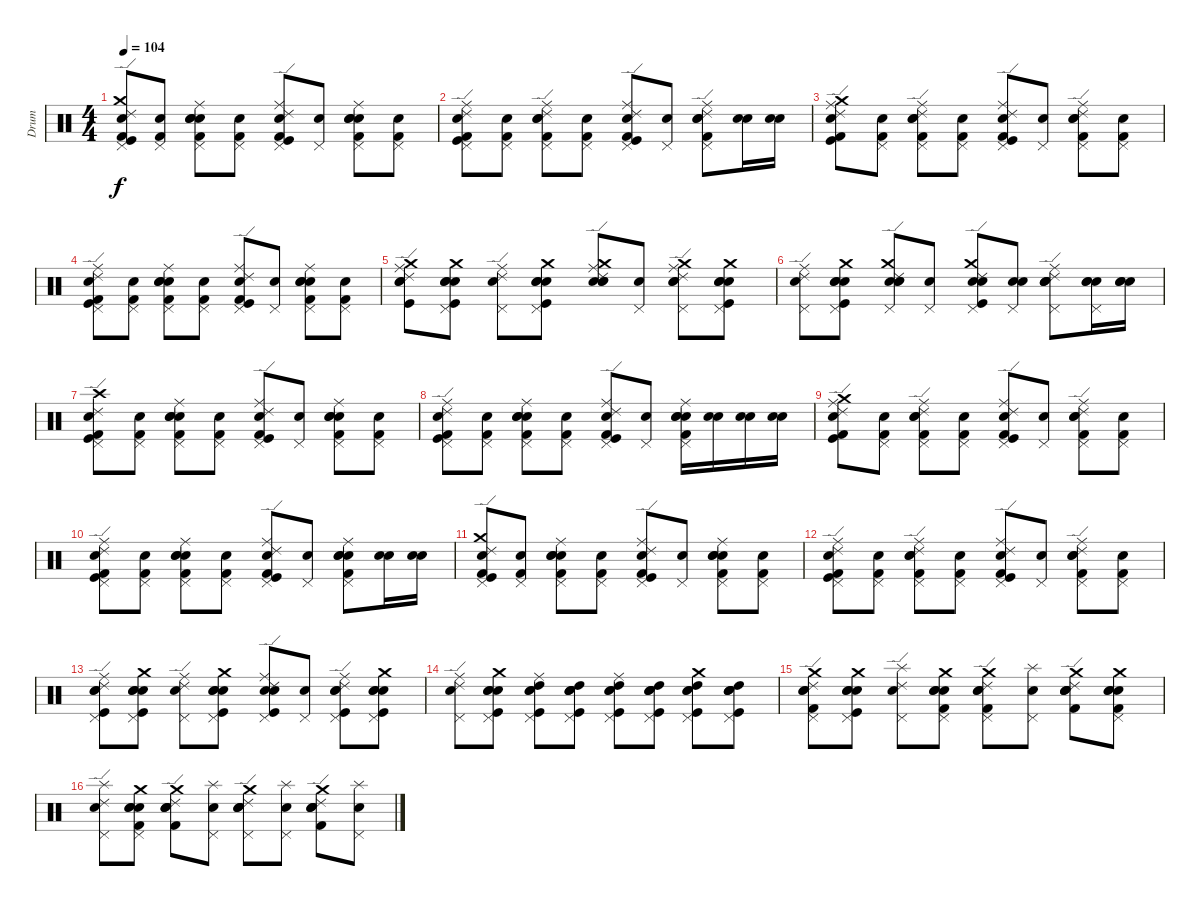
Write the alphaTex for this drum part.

\track ("Drum" "Drum") {instrument percussion}
\staff {score}
\articulation defaults
\ts (4 4)
\tempo 104
\clef neutral
\ks c
("Snare (hit)" "Kick (hit)" "Pedal Hi-Hat (hit)" "Crash medium (hit)" "Ride (edge) 2" "Kick (hit) 2").8{dy f} ("Snare (hit)" "Pedal Hi-Hat (hit)" "Kick (hit) 2").8 ("Snare (hit)" "Kick (hit) 2" "Electric Snare (hit)" "Snare (hit) 2" "Pedal Hi-Hat (hit)" "Ride (middle)").8 ("Snare (hit)" "Pedal Hi-Hat (hit)" "Kick (hit) 2").8 ("Snare (hit)" "Kick (hit)" "Pedal Hi-Hat (hit)" "Ride (edge) 2" "Ride (middle)" "Kick (hit) 2").8 ("Snare (hit)" "Pedal Hi-Hat (hit)").8 ("Snare (hit)" "Kick (hit) 2" "Snare (hit) 2" "Electric Snare (hit)" "Pedal Hi-Hat (hit)" "Ride (middle)").8 ("Snare (hit)" "Pedal Hi-Hat (hit)" "Kick (hit) 2").8 |
("Snare (hit)" "Kick (hit) 2" "Ride (middle)" "Ride (edge) 2" "Pedal Hi-Hat (hit)" "Kick (hit)").8 ("Snare (hit)" "Kick (hit) 2" "Pedal Hi-Hat (hit)").8 ("Snare (hit)" "Ride (middle)" "Ride (edge) 2" "Pedal Hi-Hat (hit)" "Snare (hit) 2" "Kick (hit) 2").8 ("Snare (hit)" "Kick (hit) 2" "Pedal Hi-Hat (hit)").8 ("Snare (hit)" "Kick (hit) 2" "Ride (middle)" "Ride (edge) 2" "Pedal Hi-Hat (hit)" "Kick (hit)").8 ("Snare (hit)" "Pedal Hi-Hat (hit)").8 ("Snare (hit)" "Ride (middle)" "Ride (edge) 2" "Pedal Hi-Hat (hit)" "Electric Snare (hit)" "Kick (hit) 2").8 ("Snare (hit)" "Snare (hit) 2").16 ("Snare (hit)" "Snare (hit) 2").16 |
("Snare (hit)" "Kick (hit) 2" "Ride (middle)" "Ride (edge) 2" "Crash medium (hit)" "Kick (hit)").8 ("Snare (hit)" "Kick (hit) 2" "Pedal Hi-Hat (hit)").8 ("Snare (hit)" "Ride (middle)" "Ride (edge) 2" "Pedal Hi-Hat (hit)" "Snare (hit) 2" "Kick (hit) 2").8 ("Snare (hit)" "Kick (hit) 2" "Pedal Hi-Hat (hit)").8 ("Snare (hit)" "Kick (hit) 2" "Ride (middle)" "Ride (edge) 2" "Pedal Hi-Hat (hit)" "Kick (hit)").8 ("Snare (hit)" "Pedal Hi-Hat (hit)").8 ("Snare (hit)" "Ride (middle)" "Ride (edge) 2" "Pedal Hi-Hat (hit)" "Electric Snare (hit)" "Kick (hit) 2").8 ("Snare (hit)" "Kick (hit) 2" "Pedal Hi-Hat (hit)").8 |
("Snare (hit)" "Kick (hit)" "Pedal Hi-Hat (hit)" "Ride (edge) 2" "Ride (middle)" "Kick (hit) 2").8 ("Snare (hit)" "Pedal Hi-Hat (hit)" "Kick (hit) 2").8 ("Snare (hit)" "Kick (hit) 2" "Electric Snare (hit)" "Snare (hit) 2" "Pedal Hi-Hat (hit)" "Ride (middle)").8 ("Snare (hit)" "Pedal Hi-Hat (hit)" "Kick (hit) 2").8 ("Snare (hit)" "Kick (hit)" "Pedal Hi-Hat (hit)" "Ride (edge) 2" "Ride (middle)" "Kick (hit) 2").8 ("Snare (hit)" "Pedal Hi-Hat (hit)").8 ("Snare (hit)" "Kick (hit) 2" "Snare (hit) 2" "Electric Snare (hit)" "Pedal Hi-Hat (hit)" "Ride (middle)").8 ("Snare (hit)" "Pedal Hi-Hat (hit)" "Kick (hit) 2").8 |
("Snare (hit)" "Ride (middle)" "Electric Snare (hit)" "Crash medium (hit)" "Ride (edge) 2" "Kick (hit)").8 ("Snare (hit)" "Electric Snare (hit)" "Crash medium (hit)" "Kick (hit)" "Pedal Hi-Hat (hit)" "Snare (hit) 2").8 ("Snare (hit)" "Ride (middle)" "Ride (edge) 2" "Pedal Hi-Hat (hit)").8 ("Snare (hit)" "Electric Snare (hit)" "Crash medium (hit)" "Snare (hit) 2" "Pedal Hi-Hat (hit)" "Kick (hit)").8 ("Snare (hit)" "Ride (middle)" "Electric Snare (hit)" "Crash medium (hit)" "Ride (edge) 2" "Snare (hit) 2").8 ("Snare (hit)" "Pedal Hi-Hat (hit)").8 ("Snare (hit)" "Ride (middle)" "Electric Snare (hit)" "Crash medium (hit)" "Ride (edge) 2" "Pedal Hi-Hat (hit)").8 ("Snare (hit)" "Electric Snare (hit)" "Crash medium (hit)" "Pedal Hi-Hat (hit)" "Snare (hit) 2" "Kick (hit)").8 |
("Snare (hit)" "Pedal Hi-Hat (hit)" "Ride (middle)" "Ride (edge) 2").8 ("Snare (hit)" "Crash medium (hit)" "Pedal Hi-Hat (hit)" "Electric Snare (hit)" "Kick (hit)" "Snare (hit) 2").8 ("Snare (hit)" "Ride (edge) 2" "Snare (hit) 2" "Pedal Hi-Hat (hit)" "Electric Snare (hit)" "Crash medium (hit)").8 ("Snare (hit)" "Pedal Hi-Hat (hit)").8 ("Snare (hit)" "Kick (hit)" "Pedal Hi-Hat (hit)" "Snare (hit) 2" "Crash medium (hit)" "Ride (edge) 2").8 ("Snare (hit)" "Snare (hit) 2" "Pedal Hi-Hat (hit)").8 ("Snare (hit)" "Ride (middle)" "Ride (edge) 2" "Electric Snare (hit)" "Pedal Hi-Hat (hit)" "Snare (hit) 2").8 ("Snare (hit)" "Pedal Hi-Hat (hit)" "Electric Snare (hit)" "Snare (hit) 2").16 ("Snare (hit)" "Snare (hit) 2" "Electric Snare (hit)").16 |
("Snare (hit)" "Kick (hit)" "Pedal Hi-Hat (hit)" "Crash high (hit)" "Ride (edge) 2" "Kick (hit) 2").8 ("Snare (hit)" "Pedal Hi-Hat (hit)" "Kick (hit) 2").8 ("Snare (hit)" "Kick (hit) 2" "Electric Snare (hit)" "Snare (hit) 2" "Pedal Hi-Hat (hit)" "Ride (middle)").8 ("Snare (hit)" "Pedal Hi-Hat (hit)" "Kick (hit) 2").8 ("Snare (hit)" "Kick (hit)" "Pedal Hi-Hat (hit)" "Ride (edge) 2" "Ride (middle)" "Kick (hit) 2").8 ("Snare (hit)" "Pedal Hi-Hat (hit)").8 ("Snare (hit)" "Kick (hit) 2" "Snare (hit) 2" "Electric Snare (hit)" "Pedal Hi-Hat (hit)" "Ride (middle)").8 ("Snare (hit)" "Pedal Hi-Hat (hit)" "Kick (hit) 2").8 |
("Snare (hit)" "Pedal Hi-Hat (hit)" "Kick (hit)" "Ride (edge) 2" "Ride (middle)" "Kick (hit) 2").8 ("Snare (hit)" "Pedal Hi-Hat (hit)" "Kick (hit) 2").8 ("Snare (hit)" "Pedal Hi-Hat (hit)" "Snare (hit) 2" "Electric Snare (hit)" "Kick (hit) 2" "Ride (middle)").8 ("Snare (hit)" "Pedal Hi-Hat (hit)" "Kick (hit) 2").8 ("Snare (hit)" "Pedal Hi-Hat (hit)" "Kick (hit)" "Ride (edge) 2" "Ride (middle)" "Kick (hit) 2").8 ("Snare (hit)" "Pedal Hi-Hat (hit)").8 ("Snare (hit)" "Pedal Hi-Hat (hit)" "Electric Snare (hit)" "Snare (hit) 2" "Kick (hit) 2" "Ride (middle)").16 ("Snare (hit)" "Snare (hit) 2").16 ("Snare (hit)" "Snare (hit) 2").16 ("Snare (hit)" "Snare (hit) 2").16 |
("Snare (hit)" "Kick (hit) 2" "Ride (middle)" "Ride (edge) 2" "Crash medium (hit)" "Kick (hit)").8 ("Snare (hit)" "Kick (hit) 2" "Pedal Hi-Hat (hit)").8 ("Snare (hit)" "Ride (middle)" "Ride (edge) 2" "Pedal Hi-Hat (hit)" "Snare (hit) 2" "Kick (hit) 2").8 ("Snare (hit)" "Kick (hit) 2" "Pedal Hi-Hat (hit)").8 ("Snare (hit)" "Kick (hit) 2" "Ride (middle)" "Ride (edge) 2" "Pedal Hi-Hat (hit)" "Kick (hit)").8 ("Snare (hit)" "Pedal Hi-Hat (hit)").8 ("Snare (hit)" "Ride (middle)" "Ride (edge) 2" "Pedal Hi-Hat (hit)" "Electric Snare (hit)" "Kick (hit) 2").8 ("Snare (hit)" "Kick (hit) 2" "Pedal Hi-Hat (hit)").8 |
("Snare (hit)" "Kick (hit)" "Pedal Hi-Hat (hit)" "Ride (edge) 2" "Ride (middle)" "Kick (hit) 2").8 ("Snare (hit)" "Pedal Hi-Hat (hit)" "Kick (hit) 2").8 ("Snare (hit)" "Kick (hit) 2" "Electric Snare (hit)" "Snare (hit) 2" "Pedal Hi-Hat (hit)" "Ride (middle)").8 ("Snare (hit)" "Pedal Hi-Hat (hit)" "Kick (hit) 2").8 ("Snare (hit)" "Kick (hit)" "Pedal Hi-Hat (hit)" "Ride (edge) 2" "Ride (middle)" "Kick (hit) 2").8 ("Snare (hit)" "Pedal Hi-Hat (hit)").8 ("Snare (hit)" "Kick (hit) 2" "Snare (hit) 2" "Electric Snare (hit)" "Pedal Hi-Hat (hit)" "Ride (middle)").8 ("Snare (hit)" "Snare (hit) 2").16 ("Snare (hit)" "Snare (hit) 2").16 |
("Snare (hit)" "Kick (hit)" "Pedal Hi-Hat (hit)" "Crash medium (hit)" "Ride (edge) 2" "Kick (hit) 2").8 ("Snare (hit)" "Pedal Hi-Hat (hit)" "Kick (hit) 2").8 ("Snare (hit)" "Kick (hit) 2" "Electric Snare (hit)" "Snare (hit) 2" "Pedal Hi-Hat (hit)" "Ride (middle)").8 ("Snare (hit)" "Pedal Hi-Hat (hit)" "Kick (hit) 2").8 ("Snare (hit)" "Kick (hit)" "Pedal Hi-Hat (hit)" "Ride (edge) 2" "Ride (middle)" "Kick (hit) 2").8 ("Snare (hit)" "Pedal Hi-Hat (hit)").8 ("Snare (hit)" "Kick (hit) 2" "Snare (hit) 2" "Electric Snare (hit)" "Pedal Hi-Hat (hit)" "Ride (middle)").8 ("Snare (hit)" "Pedal Hi-Hat (hit)" "Kick (hit) 2").8 |
("Snare (hit)" "Kick (hit) 2" "Ride (middle)" "Ride (edge) 2" "Pedal Hi-Hat (hit)" "Kick (hit)").8 ("Snare (hit)" "Kick (hit) 2" "Pedal Hi-Hat (hit)").8 ("Snare (hit)" "Ride (middle)" "Ride (edge) 2" "Pedal Hi-Hat (hit)" "Snare (hit) 2" "Kick (hit) 2").8 ("Snare (hit)" "Kick (hit) 2" "Pedal Hi-Hat (hit)").8 ("Snare (hit)" "Kick (hit) 2" "Ride (middle)" "Ride (edge) 2" "Pedal Hi-Hat (hit)" "Kick (hit)").8 ("Snare (hit)" "Pedal Hi-Hat (hit)").8 ("Snare (hit)" "Ride (middle)" "Ride (edge) 2" "Pedal Hi-Hat (hit)" "Electric Snare (hit)" "Kick (hit) 2").8 ("Snare (hit)" "Kick (hit) 2" "Pedal Hi-Hat (hit)").8 |
("Snare (hit)" "Kick (hit)" "Snare (hit) 2" "Pedal Hi-Hat (hit)" "Ride (edge) 2" "Ride (middle)").8 ("Snare (hit)" "Snare (hit) 2" "Pedal Hi-Hat (hit)" "Kick (hit)" "Crash medium (hit)" "Electric Snare (hit)").8 ("Snare (hit)" "Pedal Hi-Hat (hit)" "Ride (edge) 2" "Ride (middle)").8 ("Snare (hit)" "Kick (hit)" "Pedal Hi-Hat (hit)" "Snare (hit) 2" "Crash medium (hit)" "Electric Snare (hit)").8 ("Snare (hit)" "Snare (hit) 2" "Pedal Hi-Hat (hit)" "Kick (hit)" "Ride (edge) 2" "Ride (middle)").8 ("Snare (hit)" "Pedal Hi-Hat (hit)").8 ("Snare (hit)" "Pedal Hi-Hat (hit)" "Kick (hit)" "Snare (hit) 2" "Ride (edge) 2" "Ride (middle)").8 ("Snare (hit)" "Kick (hit)" "Snare (hit) 2" "Pedal Hi-Hat (hit)" "Crash medium (hit)" "Electric Snare (hit)").8 |
("Snare (hit)" "Pedal Hi-Hat (hit)" "Ride (edge) 2" "Ride (middle)").8 ("Snare (hit)" "Snare (hit) 2" "Kick (hit)" "Pedal Hi-Hat (hit)" "Electric Snare (hit)" "Crash medium (hit)").8 ("Snare (hit)" "Pedal Hi-Hat (hit)" "Kick (hit)" "Snare (hit) 2" "High Tom (hit)" "Ride (middle)").8 ("Snare (hit)" "Pedal Hi-Hat (hit)" "Snare (hit) 2" "Kick (hit)" "High Tom (hit)" "Electric Snare (hit)").8 ("Snare (hit)" "Snare (hit) 2" "Kick (hit)" "Pedal Hi-Hat (hit)" "High Tom (hit)" "Ride (middle)").8 ("Snare (hit)" "Pedal Hi-Hat (hit)" "Snare (hit) 2" "Kick (hit)" "High Tom (hit)" "Electric Snare (hit)").8 ("Snare (hit)" "Pedal Hi-Hat (hit)" "Kick (hit)" "Snare (hit) 2" "High Tom (hit)" "Crash medium (hit)").8 ("Snare (hit)" "Pedal Hi-Hat (hit)" "Snare (hit) 2" "Kick (hit)" "High Tom (hit)" "Electric Snare (hit)").8 |
("Snare (hit)" "Electric Snare (hit)" "Ride (edge) 2" "Crash medium (hit)" "Pedal Hi-Hat (hit)" "Kick (hit) 2").8 ("Snare (hit)" "Electric Snare (hit)" "Crash medium (hit)" "Snare (hit) 2" "Kick (hit)" "Pedal Hi-Hat (hit)").8 ("Snare (hit)" "Ride (edge) 2" "Splash (hit)" "Pedal Hi-Hat (hit)").8 ("Snare (hit)" "Electric Snare (hit)" "Crash medium (hit)" "Kick (hit) 2" "Snare (hit) 2" "Pedal Hi-Hat (hit)").8 ("Snare (hit)" "Electric Snare (hit)" "Ride (edge) 2" "Crash medium (hit)" "Pedal Hi-Hat (hit)" "Kick (hit) 2").8 ("Snare (hit)" "Pedal Hi-Hat (hit)" "Splash (hit)").8 ("Snare (hit)" "Electric Snare (hit)" "Crash medium (hit)" "Ride (edge) 2" "Kick (hit) 2" "Snare (hit) 2").8 ("Snare (hit)" "Electric Snare (hit)" "Crash medium (hit)" "Pedal Hi-Hat (hit)" "Kick (hit) 2" "Snare (hit) 2").8 |
("Snare (hit)" "Ride (edge) 2" "Splash (hit)" "Pedal Hi-Hat (hit)").8 ("Snare (hit)" "Electric Snare (hit)" "Crash medium (hit)" "Pedal Hi-Hat (hit)" "Kick (hit) 2" "Snare (hit) 2").8 ("Snare (hit)" "Electric Snare (hit)" "Ride (edge) 2" "Crash medium (hit)" "Snare (hit) 2" "Kick (hit) 2").8 ("Snare (hit)" "Pedal Hi-Hat (hit)" "Splash (hit)").8 ("Snare (hit)" "Electric Snare (hit)" "Crash medium (hit)" "Ride (edge) 2" "Pedal Hi-Hat (hit)" "Snare (hit) 2").8 ("Snare (hit)" "Pedal Hi-Hat (hit)" "Splash (hit)").8 ("Snare (hit)" "Electric Snare (hit)" "Crash medium (hit)" "Ride (edge) 2" "Snare (hit) 2" "Kick (hit) 2").8 ("Snare (hit)" "Pedal Hi-Hat (hit)" "Splash (hit)").8
